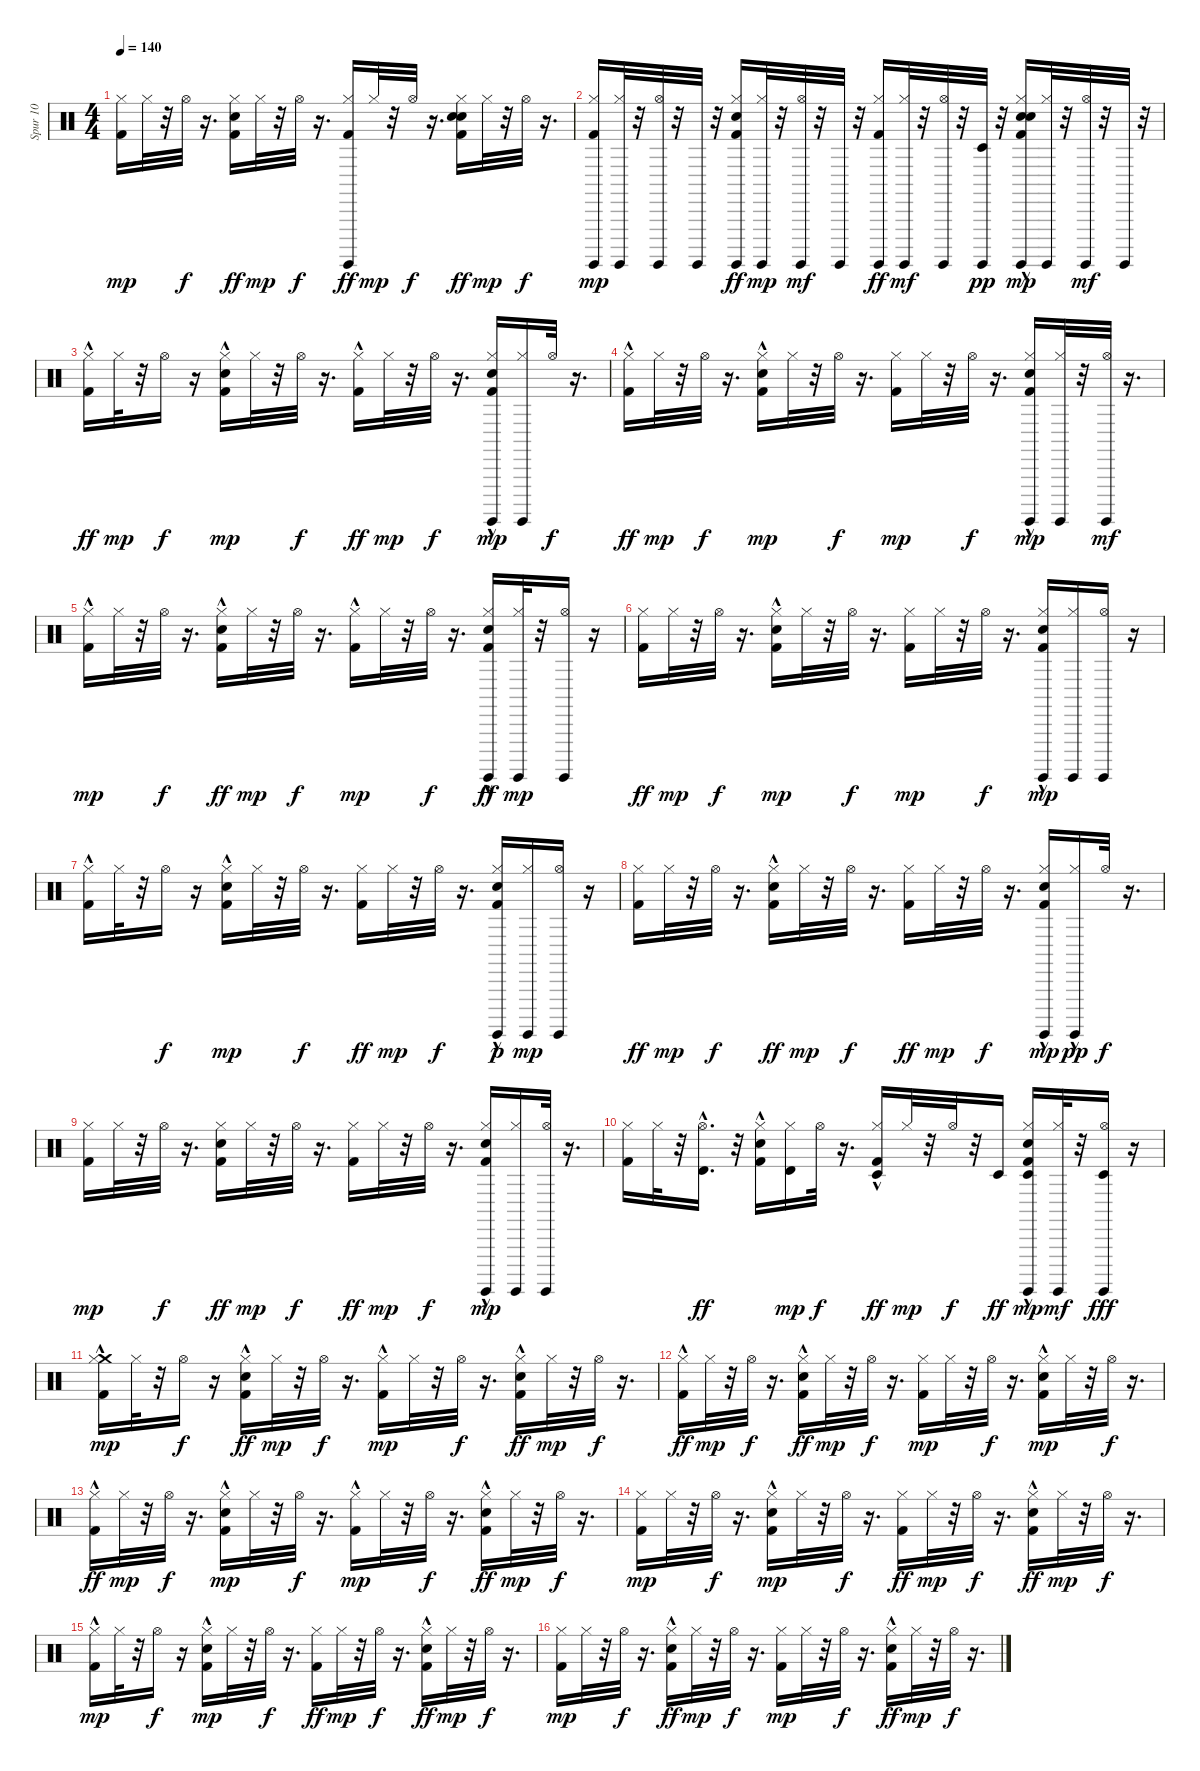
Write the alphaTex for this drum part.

\track ("Spur 10" "Spur 10") {instrument percussion}
\staff {score}
\articulation defaults
\ts (4 4)
\tempo 140
\clef neutral
\ks c
("Kick (hit) 2" "Hi-Hat (closed)").16{dy mp} "Hi-Hat (closed)".32 r.32 "Hi-Hat (open)".32{dy f} r.16{d} ("Hi-Hat (closed)" "Electric Snare (hit)" "Kick (hit) 2").16{dy ff} "Hi-Hat (closed)".32{dy mp} r.32 "Hi-Hat (open)".32{dy f} r.16{d} ("Hi-Hat (closed)" "Surdo (hit)" "Kick (hit) 2").16{dy ff} "Hi-Hat (closed)".32{dy mp} r.32 "Hi-Hat (open)".32{dy f} r.16{d} ("Hi-Hat (closed)" "Kick (hit) 2" "Snare (hit) 2" "Electric Snare (hit)").16{dy ff} "Hi-Hat (closed)".32{dy mp} r.32 "Hi-Hat (open)".32{dy f} r.16{d} |
("Hi-Hat (closed)" "Kick (hit) 2" "Surdo (hit)").16{dy mp} ("Hi-Hat (closed)" "Surdo (hit)").32 r.32 ("Hi-Hat (open)" "Surdo (hit)").32 r.32 "Surdo (hit)".32 r.32 ("Hi-Hat (closed)" "Surdo (hit)" "Kick (hit) 2" "Electric Snare (hit)").16{dy ff} ("Surdo (hit)" "Hi-Hat (closed)").32{dy mp} r.32 ("Surdo (hit)" "Hi-Hat (open)").32{dy mf} r.32 "Surdo (hit)".32 r.32 ("Hi-Hat (closed)" "Surdo (hit)" "Kick (hit) 2").16{dy ff} ("Hi-Hat (closed)" "Surdo (hit)").32{dy mf} r.32 ("Surdo (hit)" "Hi-Hat (open)").32 r.32 ("Surdo (hit)" "Timbale low (hit)").32{dy pp} r.32 ("Surdo (hit)" "Kick (hit) 2" "Snare (hit) 2" "Electric Snare (hit)"{hac} "Hi-Hat (closed)").16{dy mp} ("Surdo (hit)" "Hi-Hat (closed)").32 r.32 ("Surdo (hit)" "Hi-Hat (open)").32{dy mf} r.32 "Surdo (hit)".32 r.32 |
("Hi-Hat (closed)" "Kick (hit) 2"{hac}).16{dy ff} "Hi-Hat (closed)".32{dy mp} r.32 "Hi-Hat (open)".16{dy f} r.16 ("Kick (hit) 2"{hac} "Electric Snare (hit)"{hac} "Hi-Hat (closed)").16{dy mp} "Hi-Hat (closed)".32 r.32 "Hi-Hat (open)".32{dy f} r.16{d} ("Hi-Hat (closed)" "Kick (hit) 2"{hac}).16{dy ff} "Hi-Hat (closed)".32{dy mp} r.32 "Hi-Hat (open)".32{dy f} r.16{d} ("Hi-Hat (closed)" "Kick (hit) 2"{hac} "Electric Snare (hit)" "Surdo (hit)").16{dy mp} ("Hi-Hat (closed)" "Surdo (hit)").16 "Hi-Hat (open)".32{dy f} r.16{d} |
("Hi-Hat (closed)" "Kick (hit) 2"{hac}).16{dy ff} "Hi-Hat (closed)".32{dy mp} r.32 "Hi-Hat (open)".32{dy f} r.16{d} ("Electric Snare (hit)"{hac} "Kick (hit) 2"{hac} "Hi-Hat (closed)").16{dy mp} "Hi-Hat (closed)".32 r.32 "Hi-Hat (open)".32{dy f} r.16{d} ("Kick (hit) 2" "Hi-Hat (closed)").16{dy mp} "Hi-Hat (closed)".32 r.32 "Hi-Hat (open)".32{dy f} r.16{d} ("Kick (hit) 2"{hac} "Hi-Hat (closed)" "Surdo (hit)" "Electric Snare (hit)"{hac}).16{dy mp} ("Surdo (hit)" "Hi-Hat (closed)").32 r.32 ("Surdo (hit)" "Hi-Hat (open)").32{dy mf} r.16{d} |
("Kick (hit) 2"{hac} "Hi-Hat (closed)").16{dy mp} "Hi-Hat (closed)".32 r.32 "Hi-Hat (open)".32{dy f} r.16{d} ("Hi-Hat (closed)" "Kick (hit) 2"{hac} "Electric Snare (hit)").16{dy ff} "Hi-Hat (closed)".32{dy mp} r.32 "Hi-Hat (open)".32{dy f} r.16{d} ("Kick (hit) 2"{hac} "Hi-Hat (closed)").16{dy mp} "Hi-Hat (closed)".32 r.32 "Hi-Hat (open)".32{dy f} r.16{d} ("Hi-Hat (closed)" "Surdo (hit)" "Kick (hit) 2" "Electric Snare (hit)"{hac}).16{dy ff} ("Hi-Hat (closed)" "Surdo (hit)").32{dy mp} r.32 ("Hi-Hat (open)" "Surdo (hit)").16 r.16 |
("Hi-Hat (closed)" "Kick (hit) 2").16{dy ff} "Hi-Hat (closed)".32{dy mp} r.32 "Hi-Hat (open)".32{dy f} r.16{d} ("Kick (hit) 2" "Electric Snare (hit)"{hac} "Hi-Hat (closed)").16{dy mp} "Hi-Hat (closed)".32 r.32 "Hi-Hat (open)".32{dy f} r.16{d} ("Kick (hit) 2" "Hi-Hat (closed)").16{dy mp} "Hi-Hat (closed)".32 r.32 "Hi-Hat (open)".32{dy f} r.16{d} ("Surdo (hit)" "Kick (hit) 2"{hac} "Electric Snare (hit)"{hac} "Hi-Hat (closed)").16{dy mp} ("Surdo (hit)" "Hi-Hat (closed)").16 ("Surdo (hit)" "Hi-Hat (open)").16 r.16 |
("Kick (hit) 2"{hac} "Hi-Hat (closed)").16 "Hi-Hat (closed)".32 r.32 "Hi-Hat (open)".16{dy f} r.16 ("Electric Snare (hit)"{hac} "Kick (hit) 2"{hac} "Hi-Hat (closed)").16{dy mp} "Hi-Hat (closed)".32 r.32 "Hi-Hat (open)".32{dy f} r.16{d} ("Hi-Hat (closed)" "Kick (hit) 2").16{dy ff} "Hi-Hat (closed)".32{dy mp} r.32 "Hi-Hat (open)".32{dy f} r.16{d} ("Electric Snare (hit)"{hac} "Kick (hit) 2"{hac} "Hi-Hat (closed)" "Surdo (hit)").16{dy p} ("Surdo (hit)" "Hi-Hat (closed)").16{dy mp} ("Hi-Hat (open)" "Surdo (hit)").16 r.16 |
("Hi-Hat (closed)" "Kick (hit) 2").16{dy ff} "Hi-Hat (closed)".32{dy mp} r.32 "Hi-Hat (open)".32{dy f} r.16{d} ("Electric Snare (hit)"{hac} "Hi-Hat (closed)" "Kick (hit) 2").16{dy ff} "Hi-Hat (closed)".32{dy mp} r.32 "Hi-Hat (open)".32{dy f} r.16{d} ("Hi-Hat (closed)" "Kick (hit) 2").16{dy ff} "Hi-Hat (closed)".32{dy mp} r.32 "Hi-Hat (open)".32{dy f} r.16{d} ("Electric Snare (hit)"{hac} "Kick (hit) 2" "Hi-Hat (closed)" "Surdo (hit)").16{dy mp} ("Hi-Hat (closed)" "Surdo (hit)"{hac}).16{dy pp} "Hi-Hat (open)".32{dy f} r.16{d} |
("Kick (hit) 2" "Hi-Hat (closed)").16{dy mp} "Hi-Hat (closed)".32 r.32 "Hi-Hat (open)".32{dy f} r.16{d} ("Hi-Hat (closed)" "Electric Snare (hit)" "Kick (hit) 2").16{dy ff} "Hi-Hat (closed)".32{dy mp} r.32 "Hi-Hat (open)".32{dy f} r.16{d} ("Hi-Hat (closed)" "Kick (hit) 2").16{dy ff} "Hi-Hat (closed)".32{dy mp} r.32 "Hi-Hat (open)".32{dy f} r.16{d} ("Electric Snare (hit)"{hac} "Surdo (hit)" "Kick (hit) 2" "Hi-Hat (closed)").16{dy mp} ("Surdo (hit)" "Hi-Hat (closed)").16 ("Hi-Hat (open)" "Surdo (hit)").32 r.16{d} |
("Kick (hit) 2" "Hi-Hat (closed)").16 "Hi-Hat (closed)".32 r.32 ("Timbale high (hit)"{hac} "Hi-Hat (open)").16{d dy ff} r.32 ("Hi-Hat (closed)" "Kick (hit) 2" "Electric Snare (hit)"{hac}).16 ("Timbale high (hit)" "Hi-Hat (closed)").16{dy mp} "Hi-Hat (open)".32{dy f} r.16{d} ("Hi-Hat (closed)" "Kick (hit) 2" "Timbale low (hit)"{hac}).16{dy ff} "Hi-Hat (closed)".32{dy mp} r.32 "Hi-Hat (open)".32{dy f} r.32 "Timbale low (hit)".16{dy ff} ("Surdo (hit)" "Kick (hit) 2" "Timbale low (hit)" "Hi-Hat (closed)" "Electric Snare (hit)"{hac}).16{dy mp} ("Hi-Hat (closed)" "Surdo (hit)").32{dy mf} r.32 ("Surdo (hit)" "Hi-Hat (open)" "Timbale low (hit)").16{dy fff} r.16 |
("Kick (hit) 2"{hac} "Crash medium (hit)" "Hi-Hat (closed)").16{dy mp} "Hi-Hat (closed)".32 r.32 "Hi-Hat (open)".16{dy f} r.16 ("Electric Snare (hit)"{hac} "Hi-Hat (closed)" "Kick (hit) 2"{hac}).16{dy ff} "Hi-Hat (closed)".32{dy mp} r.32 "Hi-Hat (open)".32{dy f} r.16{d} ("Kick (hit) 2"{hac} "Hi-Hat (closed)").16{dy mp} "Hi-Hat (closed)".32 r.32 "Hi-Hat (open)".32{dy f} r.16{d} ("Hi-Hat (closed)" "Electric Snare (hit)" "Kick (hit) 2"{hac}).16{dy ff} "Hi-Hat (closed)".32{dy mp} r.32 "Hi-Hat (open)".32{dy f} r.16{d} |
("Hi-Hat (closed)" "Kick (hit) 2"{hac}).16{dy ff} "Hi-Hat (closed)".32{dy mp} r.32 "Hi-Hat (open)".32{dy f} r.16{d} ("Hi-Hat (closed)" "Kick (hit) 2"{hac} "Electric Snare (hit)"{hac}).16{dy ff} "Hi-Hat (closed)".32{dy mp} r.32 "Hi-Hat (open)".32{dy f} r.16{d} ("Kick (hit) 2" "Hi-Hat (closed)").16{dy mp} "Hi-Hat (closed)".32 r.32 "Hi-Hat (open)".32{dy f} r.16{d} ("Electric Snare (hit)"{hac} "Kick (hit) 2"{hac} "Hi-Hat (closed)").16{dy mp} "Hi-Hat (closed)".32 r.32 "Hi-Hat (open)".32{dy f} r.16{d} |
("Hi-Hat (closed)" "Kick (hit) 2"{hac}).16{dy ff} "Hi-Hat (closed)".32{dy mp} r.32 "Hi-Hat (open)".32{dy f} r.16{d} ("Electric Snare (hit)" "Kick (hit) 2"{hac} "Hi-Hat (closed)").16{dy mp} "Hi-Hat (closed)".32 r.32 "Hi-Hat (open)".32{dy f} r.16{d} ("Kick (hit) 2"{hac} "Hi-Hat (closed)").16{dy mp} "Hi-Hat (closed)".32 r.32 "Hi-Hat (open)".32{dy f} r.16{d} ("Hi-Hat (closed)" "Kick (hit) 2" "Electric Snare (hit)"{hac}).16{dy ff} "Hi-Hat (closed)".32{dy mp} r.32 "Hi-Hat (open)".32{dy f} r.16{d} |
("Kick (hit) 2" "Hi-Hat (closed)").16{dy mp} "Hi-Hat (closed)".32 r.32 "Hi-Hat (open)".32{dy f} r.16{d} ("Kick (hit) 2" "Electric Snare (hit)"{hac} "Hi-Hat (closed)").16{dy mp} "Hi-Hat (closed)".32 r.32 "Hi-Hat (open)".32{dy f} r.16{d} ("Hi-Hat (closed)" "Kick (hit) 2").16{dy ff} "Hi-Hat (closed)".32{dy mp} r.32 "Hi-Hat (open)".32{dy f} r.16{d} ("Hi-Hat (closed)" "Electric Snare (hit)"{hac} "Kick (hit) 2"{hac}).16{dy ff} "Hi-Hat (closed)".32{dy mp} r.32 "Hi-Hat (open)".32{dy f} r.16{d} |
("Kick (hit) 2"{hac} "Hi-Hat (closed)").16{dy mp} "Hi-Hat (closed)".32 r.32 "Hi-Hat (open)".16{dy f} r.16 ("Electric Snare (hit)"{hac} "Kick (hit) 2"{hac} "Hi-Hat (closed)").16{dy mp} "Hi-Hat (closed)".32 r.32 "Hi-Hat (open)".32{dy f} r.16{d} ("Hi-Hat (closed)" "Kick (hit) 2").16{dy ff} "Hi-Hat (closed)".32{dy mp} r.32 "Hi-Hat (open)".32{dy f} r.16{d} ("Hi-Hat (closed)" "Electric Snare (hit)"{hac} "Kick (hit) 2"{hac}).16{dy ff} "Hi-Hat (closed)".32{dy mp} r.32 "Hi-Hat (open)".32{dy f} r.16{d} |
("Kick (hit) 2" "Hi-Hat (closed)").16{dy mp} "Hi-Hat (closed)".32 r.32 "Hi-Hat (open)".32{dy f} r.16{d} ("Hi-Hat (closed)" "Kick (hit) 2" "Electric Snare (hit)"{hac}).16{dy ff} "Hi-Hat (closed)".32{dy mp} r.32 "Hi-Hat (open)".32{dy f} r.16{d} ("Kick (hit) 2" "Hi-Hat (closed)").16{dy mp} "Hi-Hat (closed)".32 r.32 "Hi-Hat (open)".32{dy f} r.16{d} ("Hi-Hat (closed)" "Kick (hit) 2" "Electric Snare (hit)"{hac}).16{dy ff} "Hi-Hat (closed)".32{dy mp} r.32 "Hi-Hat (open)".32{dy f} r.16{d}
